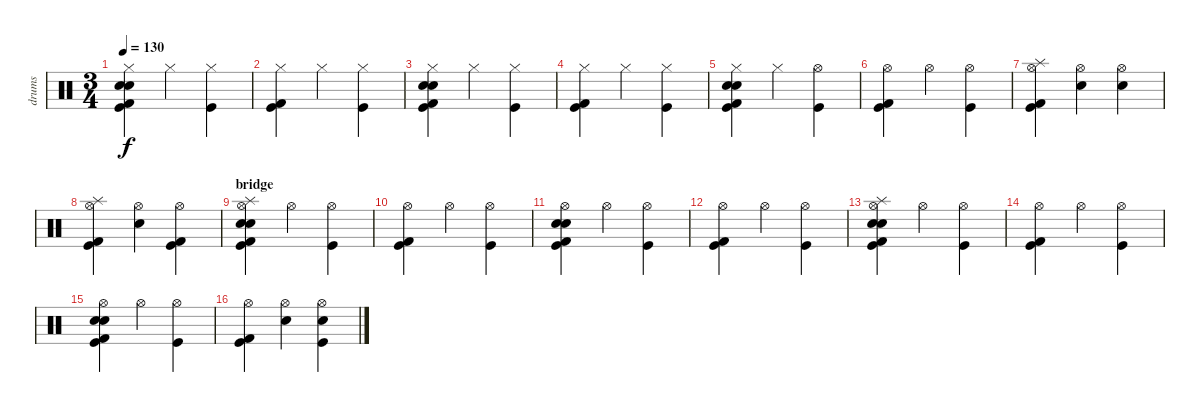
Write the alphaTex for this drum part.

\track ("drums" "drums") {instrument percussion}
\staff {score}
\articulation defaults
\ts (3 4)
\tempo 130
\clef neutral
\ks c
("Hi-Hat (closed)" "Electric Snare (hit)" "Snare (hit) 2" "Kick (hit) 2" "Kick (hit)").4{dy f} "Hi-Hat (closed)".4 ("Hi-Hat (closed)" "Kick (hit)").4 |
("Hi-Hat (closed)" "Kick (hit) 2" "Kick (hit)").4 "Hi-Hat (closed)".4 ("Hi-Hat (closed)" "Kick (hit)").4 |
("Hi-Hat (closed)" "Electric Snare (hit)" "Snare (hit) 2" "Kick (hit) 2" "Kick (hit)").4 "Hi-Hat (closed)".4 ("Hi-Hat (closed)" "Kick (hit)").4 |
("Hi-Hat (closed)" "Kick (hit) 2" "Kick (hit)").4 "Hi-Hat (closed)".4 ("Hi-Hat (closed)" "Kick (hit)").4 |
("Hi-Hat (closed)" "Electric Snare (hit)" "Snare (hit) 2" "Kick (hit) 2" "Kick (hit)").4 "Hi-Hat (closed)".4 ("Hi-Hat (open)" "Kick (hit)").4 |
("Hi-Hat (open)" "Kick (hit) 2" "Kick (hit)").4 "Hi-Hat (open)".4 ("Hi-Hat (open)" "Kick (hit)").4 |
("Hi-Hat (open)" "Splash (hit)" "Kick (hit) 2" "Kick (hit)").4 ("Hi-Hat (open)" "Snare (hit) 2").4 ("Hi-Hat (open)" "Snare (hit) 2").4 |
("Hi-Hat (open)" "Splash (hit)" "Kick (hit) 2" "Kick (hit)").4 ("Hi-Hat (open)" "Snare (hit) 2").4 ("Hi-Hat (open)" "Kick (hit) 2" "Kick (hit)").4 |
\section ("" "bridge")
("Hi-Hat (open)" "Electric Snare (hit)" "Snare (hit) 2" "Splash (hit)" "Kick (hit) 2" "Kick (hit)").4 "Hi-Hat (open)".4 ("Hi-Hat (open)" "Kick (hit)").4 |
("Hi-Hat (open)" "Kick (hit) 2" "Kick (hit)").4 "Hi-Hat (open)".4 ("Hi-Hat (open)" "Kick (hit)").4 |
("Hi-Hat (open)" "Electric Snare (hit)" "Snare (hit) 2" "Kick (hit) 2" "Kick (hit)").4 "Hi-Hat (open)".4 ("Hi-Hat (open)" "Kick (hit)").4 |
("Hi-Hat (open)" "Kick (hit) 2" "Kick (hit)").4 "Hi-Hat (open)".4 ("Hi-Hat (open)" "Kick (hit)").4 |
("Hi-Hat (open)" "Electric Snare (hit)" "Snare (hit) 2" "Splash (hit)" "Kick (hit) 2" "Kick (hit)").4 "Hi-Hat (open)".4 ("Hi-Hat (open)" "Kick (hit)").4 |
("Hi-Hat (open)" "Kick (hit) 2" "Kick (hit)").4 "Hi-Hat (open)".4 ("Hi-Hat (open)" "Kick (hit)").4 |
("Hi-Hat (open)" "Electric Snare (hit)" "Snare (hit) 2" "Kick (hit) 2" "Kick (hit)").4 "Hi-Hat (open)".4 ("Hi-Hat (open)" "Kick (hit)").4 |
("Hi-Hat (open)" "Kick (hit) 2" "Kick (hit)").4 ("Hi-Hat (open)" "Snare (hit) 2").4 ("Hi-Hat (open)" "Snare (hit) 2" "Kick (hit)").4
